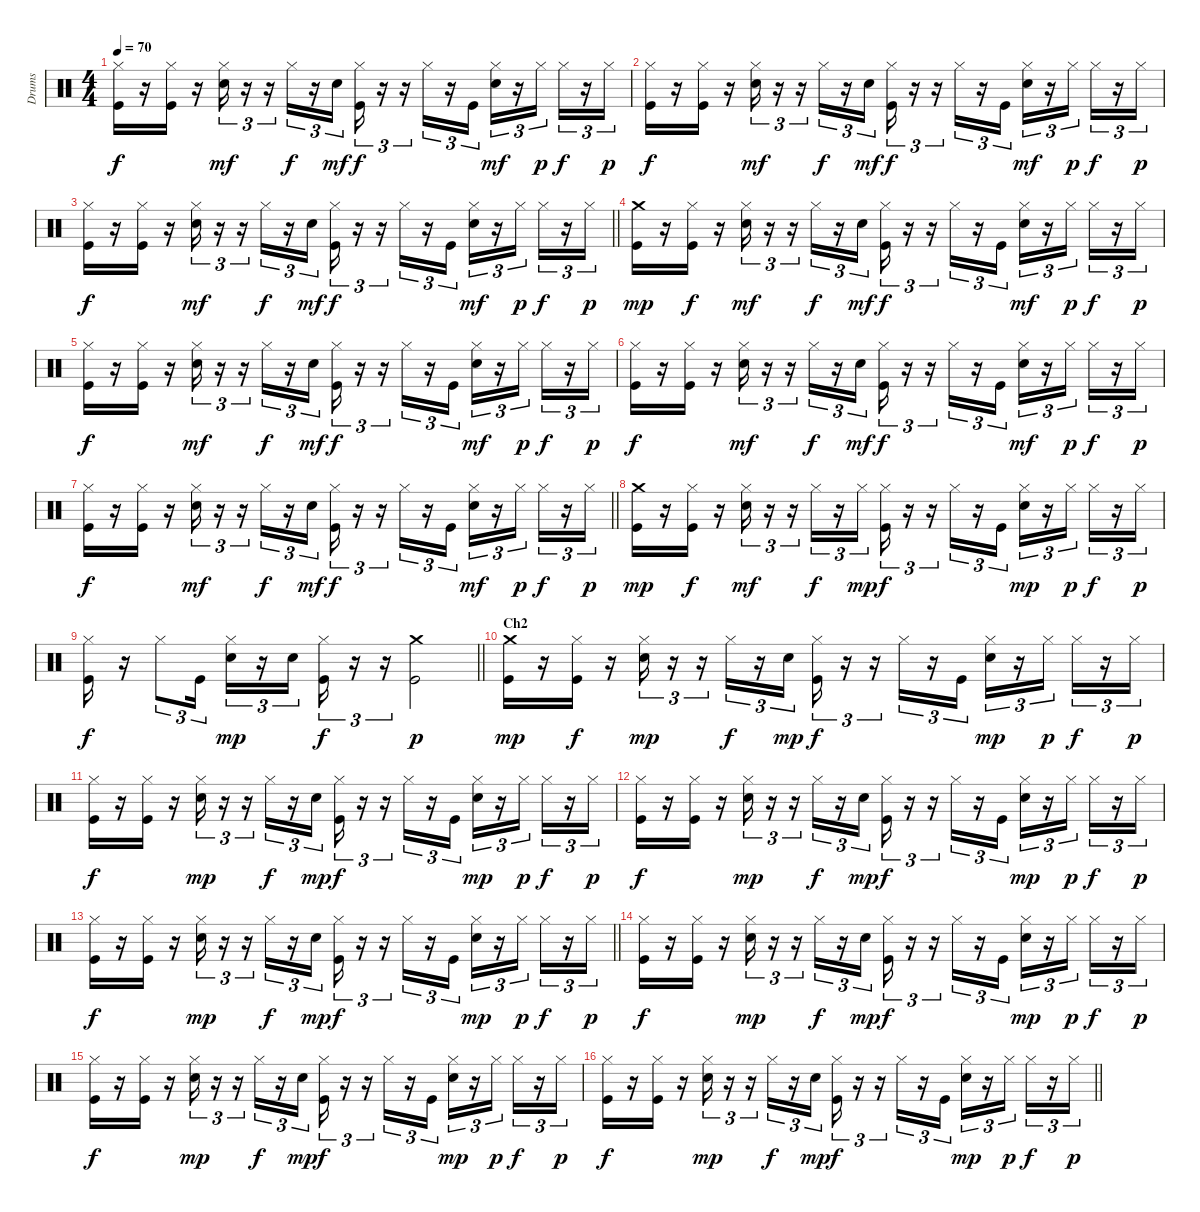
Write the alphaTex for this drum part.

\track ("Drums" "Drums") {instrument percussion}
\staff {score}
\articulation defaults
\ts (4 4)
\tempo 70
\clef neutral
\ks c
("Kick (hit)" "Hi-Hat (closed)").16{dy f} r.16 ("Kick (hit)" "Hi-Hat (closed)").16 r.16 ("Electric Snare (hit)" "Hi-Hat (closed)").16{tu (3 2) dy mf} r.16{tu (3 2)} r.16{tu (3 2)} "Hi-Hat (closed)".16{tu (3 2) dy f} r.16{tu (3 2)} "Electric Snare (hit)".16{tu (3 2) dy mf} ("Kick (hit)" "Hi-Hat (closed)").16{tu (3 2) dy f} r.16{tu (3 2)} r.16{tu (3 2)} "Hi-Hat (closed)".16{tu (3 2)} r.16{tu (3 2)} "Kick (hit)".16{tu (3 2)} ("Electric Snare (hit)" "Hi-Hat (closed)").16{tu (3 2) dy mf} r.16{tu (3 2)} "Hi-Hat (closed)".16{tu (3 2) dy p} "Hi-Hat (closed)".16{tu (3 2) dy f} r.16{tu (3 2)} "Hi-Hat (closed)".16{tu (3 2) dy p} |
("Kick (hit)" "Hi-Hat (closed)").16{dy f} r.16 ("Kick (hit)" "Hi-Hat (closed)").16 r.16 ("Electric Snare (hit)" "Hi-Hat (closed)").16{tu (3 2) dy mf} r.16{tu (3 2)} r.16{tu (3 2)} "Hi-Hat (closed)".16{tu (3 2) dy f} r.16{tu (3 2)} "Electric Snare (hit)".16{tu (3 2) dy mf} ("Kick (hit)" "Hi-Hat (closed)").16{tu (3 2) dy f} r.16{tu (3 2)} r.16{tu (3 2)} "Hi-Hat (closed)".16{tu (3 2)} r.16{tu (3 2)} "Kick (hit)".16{tu (3 2)} ("Electric Snare (hit)" "Hi-Hat (closed)").16{tu (3 2) dy mf} r.16{tu (3 2)} "Hi-Hat (closed)".16{tu (3 2) dy p} "Hi-Hat (closed)".16{tu (3 2) dy f} r.16{tu (3 2)} "Hi-Hat (closed)".16{tu (3 2) dy p} |
\barLineRight lightlight
("Kick (hit)" "Hi-Hat (closed)").16{dy f} r.16 ("Kick (hit)" "Hi-Hat (closed)").16 r.16 ("Electric Snare (hit)" "Hi-Hat (closed)").16{tu (3 2) dy mf} r.16{tu (3 2)} r.16{tu (3 2)} "Hi-Hat (closed)".16{tu (3 2) dy f} r.16{tu (3 2)} "Electric Snare (hit)".16{tu (3 2) dy mf} ("Kick (hit)" "Hi-Hat (closed)").16{tu (3 2) dy f} r.16{tu (3 2)} r.16{tu (3 2)} "Hi-Hat (closed)".16{tu (3 2)} r.16{tu (3 2)} "Kick (hit)".16{tu (3 2)} ("Electric Snare (hit)" "Hi-Hat (closed)").16{tu (3 2) dy mf} r.16{tu (3 2)} "Hi-Hat (closed)".16{tu (3 2) dy p} "Hi-Hat (closed)".16{tu (3 2) dy f} r.16{tu (3 2)} "Hi-Hat (closed)".16{tu (3 2) dy p} |
("Kick (hit)" "Crash medium (hit)").16{dy mp} r.16 ("Kick (hit)" "Hi-Hat (closed)").16{dy f} r.16 ("Electric Snare (hit)" "Hi-Hat (closed)").16{tu (3 2) dy mf} r.16{tu (3 2)} r.16{tu (3 2)} "Hi-Hat (closed)".16{tu (3 2) dy f} r.16{tu (3 2)} "Electric Snare (hit)".16{tu (3 2) dy mf} ("Kick (hit)" "Hi-Hat (closed)").16{tu (3 2) dy f} r.16{tu (3 2)} r.16{tu (3 2)} "Hi-Hat (closed)".16{tu (3 2)} r.16{tu (3 2)} "Kick (hit)".16{tu (3 2)} ("Electric Snare (hit)" "Hi-Hat (closed)").16{tu (3 2) dy mf} r.16{tu (3 2)} "Hi-Hat (closed)".16{tu (3 2) dy p} "Hi-Hat (closed)".16{tu (3 2) dy f} r.16{tu (3 2)} "Hi-Hat (closed)".16{tu (3 2) dy p} |
("Kick (hit)" "Hi-Hat (closed)").16{dy f} r.16 ("Kick (hit)" "Hi-Hat (closed)").16 r.16 ("Electric Snare (hit)" "Hi-Hat (closed)").16{tu (3 2) dy mf} r.16{tu (3 2)} r.16{tu (3 2)} "Hi-Hat (closed)".16{tu (3 2) dy f} r.16{tu (3 2)} "Electric Snare (hit)".16{tu (3 2) dy mf} ("Kick (hit)" "Hi-Hat (closed)").16{tu (3 2) dy f} r.16{tu (3 2)} r.16{tu (3 2)} "Hi-Hat (closed)".16{tu (3 2)} r.16{tu (3 2)} "Kick (hit)".16{tu (3 2)} ("Electric Snare (hit)" "Hi-Hat (closed)").16{tu (3 2) dy mf} r.16{tu (3 2)} "Hi-Hat (closed)".16{tu (3 2) dy p} "Hi-Hat (closed)".16{tu (3 2) dy f} r.16{tu (3 2)} "Hi-Hat (closed)".16{tu (3 2) dy p} |
("Kick (hit)" "Hi-Hat (closed)").16{dy f} r.16 ("Kick (hit)" "Hi-Hat (closed)").16 r.16 ("Electric Snare (hit)" "Hi-Hat (closed)").16{tu (3 2) dy mf} r.16{tu (3 2)} r.16{tu (3 2)} "Hi-Hat (closed)".16{tu (3 2) dy f} r.16{tu (3 2)} "Electric Snare (hit)".16{tu (3 2) dy mf} ("Kick (hit)" "Hi-Hat (closed)").16{tu (3 2) dy f} r.16{tu (3 2)} r.16{tu (3 2)} "Hi-Hat (closed)".16{tu (3 2)} r.16{tu (3 2)} "Kick (hit)".16{tu (3 2)} ("Electric Snare (hit)" "Hi-Hat (closed)").16{tu (3 2) dy mf} r.16{tu (3 2)} "Hi-Hat (closed)".16{tu (3 2) dy p} "Hi-Hat (closed)".16{tu (3 2) dy f} r.16{tu (3 2)} "Hi-Hat (closed)".16{tu (3 2) dy p} |
\barLineRight lightlight
("Kick (hit)" "Hi-Hat (closed)").16{dy f} r.16 ("Kick (hit)" "Hi-Hat (closed)").16 r.16 ("Electric Snare (hit)" "Hi-Hat (closed)").16{tu (3 2) dy mf} r.16{tu (3 2)} r.16{tu (3 2)} "Hi-Hat (closed)".16{tu (3 2) dy f} r.16{tu (3 2)} "Electric Snare (hit)".16{tu (3 2) dy mf} ("Kick (hit)" "Hi-Hat (closed)").16{tu (3 2) dy f} r.16{tu (3 2)} r.16{tu (3 2)} "Hi-Hat (closed)".16{tu (3 2)} r.16{tu (3 2)} "Kick (hit)".16{tu (3 2)} ("Electric Snare (hit)" "Hi-Hat (closed)").16{tu (3 2) dy mf} r.16{tu (3 2)} "Hi-Hat (closed)".16{tu (3 2) dy p} "Hi-Hat (closed)".16{tu (3 2) dy f} r.16{tu (3 2)} "Hi-Hat (closed)".16{tu (3 2) dy p} |
\section ("" "")
("Kick (hit)" "Crash medium (hit)").16{dy mp} r.16 ("Kick (hit)" "Hi-Hat (closed)").16{dy f} r.16 ("Electric Snare (hit)" "Hi-Hat (closed)").16{tu (3 2) dy mf} r.16{tu (3 2)} r.16{tu (3 2)} "Hi-Hat (closed)".16{tu (3 2) dy f} r.16{tu (3 2)} "Hi-Hat (closed)".16{tu (3 2) dy mp} ("Kick (hit)" "Hi-Hat (closed)").16{tu (3 2) dy f} r.16{tu (3 2)} r.16{tu (3 2)} "Hi-Hat (closed)".16{tu (3 2)} r.16{tu (3 2)} "Kick (hit)".16{tu (3 2)} ("Electric Snare (hit)" "Hi-Hat (closed)").16{tu (3 2) dy mp} r.16{tu (3 2)} "Hi-Hat (closed)".16{tu (3 2) dy p} "Hi-Hat (closed)".16{tu (3 2) dy f} r.16{tu (3 2)} "Hi-Hat (closed)".16{tu (3 2) dy p} |
\barLineRight lightlight
("Kick (hit)" "Hi-Hat (closed)").16{dy f} r.16 "Hi-Hat (closed)".8{tu (3 2)} "Kick (hit)".16{tu (3 2)} ("Electric Snare (hit)" "Hi-Hat (closed)").16{tu (3 2) dy mp} r.16{tu (3 2)} "Electric Snare (hit)".16{tu (3 2)} ("Kick (hit)" "Hi-Hat (closed)").16{tu (3 2) dy f} r.16{tu (3 2)} r.16{tu (3 2)} ("Kick (hit)" "Crash medium (hit)").2{dy p} |
\section ("" "Ch2")
("Kick (hit)" "Crash medium (hit)").16{dy mp} r.16 ("Kick (hit)" "Hi-Hat (closed)").16{dy f} r.16 ("Electric Snare (hit)" "Hi-Hat (closed)").16{tu (3 2) dy mp} r.16{tu (3 2)} r.16{tu (3 2)} "Hi-Hat (closed)".16{tu (3 2) dy f} r.16{tu (3 2)} "Electric Snare (hit)".16{tu (3 2) dy mp} ("Kick (hit)" "Hi-Hat (closed)").16{tu (3 2) dy f} r.16{tu (3 2)} r.16{tu (3 2)} "Hi-Hat (closed)".16{tu (3 2)} r.16{tu (3 2)} "Kick (hit)".16{tu (3 2)} ("Electric Snare (hit)" "Hi-Hat (closed)").16{tu (3 2) dy mp} r.16{tu (3 2)} "Hi-Hat (closed)".16{tu (3 2) dy p} "Hi-Hat (closed)".16{tu (3 2) dy f} r.16{tu (3 2)} "Hi-Hat (closed)".16{tu (3 2) dy p} |
("Kick (hit)" "Hi-Hat (closed)").16{dy f} r.16 ("Kick (hit)" "Hi-Hat (closed)").16 r.16 ("Electric Snare (hit)" "Hi-Hat (closed)").16{tu (3 2) dy mp} r.16{tu (3 2)} r.16{tu (3 2)} "Hi-Hat (closed)".16{tu (3 2) dy f} r.16{tu (3 2)} "Electric Snare (hit)".16{tu (3 2) dy mp} ("Kick (hit)" "Hi-Hat (closed)").16{tu (3 2) dy f} r.16{tu (3 2)} r.16{tu (3 2)} "Hi-Hat (closed)".16{tu (3 2)} r.16{tu (3 2)} "Kick (hit)".16{tu (3 2)} ("Electric Snare (hit)" "Hi-Hat (closed)").16{tu (3 2) dy mp} r.16{tu (3 2)} "Hi-Hat (closed)".16{tu (3 2) dy p} "Hi-Hat (closed)".16{tu (3 2) dy f} r.16{tu (3 2)} "Hi-Hat (closed)".16{tu (3 2) dy p} |
("Kick (hit)" "Hi-Hat (closed)").16{dy f} r.16 ("Kick (hit)" "Hi-Hat (closed)").16 r.16 ("Electric Snare (hit)" "Hi-Hat (closed)").16{tu (3 2) dy mp} r.16{tu (3 2)} r.16{tu (3 2)} "Hi-Hat (closed)".16{tu (3 2) dy f} r.16{tu (3 2)} "Electric Snare (hit)".16{tu (3 2) dy mp} ("Kick (hit)" "Hi-Hat (closed)").16{tu (3 2) dy f} r.16{tu (3 2)} r.16{tu (3 2)} "Hi-Hat (closed)".16{tu (3 2)} r.16{tu (3 2)} "Kick (hit)".16{tu (3 2)} ("Electric Snare (hit)" "Hi-Hat (closed)").16{tu (3 2) dy mp} r.16{tu (3 2)} "Hi-Hat (closed)".16{tu (3 2) dy p} "Hi-Hat (closed)".16{tu (3 2) dy f} r.16{tu (3 2)} "Hi-Hat (closed)".16{tu (3 2) dy p} |
\barLineRight lightlight
("Kick (hit)" "Hi-Hat (closed)").16{dy f} r.16 ("Kick (hit)" "Hi-Hat (closed)").16 r.16 ("Electric Snare (hit)" "Hi-Hat (closed)").16{tu (3 2) dy mp} r.16{tu (3 2)} r.16{tu (3 2)} "Hi-Hat (closed)".16{tu (3 2) dy f} r.16{tu (3 2)} "Electric Snare (hit)".16{tu (3 2) dy mp} ("Kick (hit)" "Hi-Hat (closed)").16{tu (3 2) dy f} r.16{tu (3 2)} r.16{tu (3 2)} "Hi-Hat (closed)".16{tu (3 2)} r.16{tu (3 2)} "Kick (hit)".16{tu (3 2)} ("Electric Snare (hit)" "Hi-Hat (closed)").16{tu (3 2) dy mp} r.16{tu (3 2)} "Hi-Hat (closed)".16{tu (3 2) dy p} "Hi-Hat (closed)".16{tu (3 2) dy f} r.16{tu (3 2)} "Hi-Hat (closed)".16{tu (3 2) dy p} |
("Kick (hit)" "Hi-Hat (closed)").16{dy f} r.16 ("Kick (hit)" "Hi-Hat (closed)").16 r.16 ("Electric Snare (hit)" "Hi-Hat (closed)").16{tu (3 2) dy mp} r.16{tu (3 2)} r.16{tu (3 2)} "Hi-Hat (closed)".16{tu (3 2) dy f} r.16{tu (3 2)} "Electric Snare (hit)".16{tu (3 2) dy mp} ("Kick (hit)" "Hi-Hat (closed)").16{tu (3 2) dy f} r.16{tu (3 2)} r.16{tu (3 2)} "Hi-Hat (closed)".16{tu (3 2)} r.16{tu (3 2)} "Kick (hit)".16{tu (3 2)} ("Electric Snare (hit)" "Hi-Hat (closed)").16{tu (3 2) dy mp} r.16{tu (3 2)} "Hi-Hat (closed)".16{tu (3 2) dy p} "Hi-Hat (closed)".16{tu (3 2) dy f} r.16{tu (3 2)} "Hi-Hat (closed)".16{tu (3 2) dy p} |
("Kick (hit)" "Hi-Hat (closed)").16{dy f} r.16 ("Kick (hit)" "Hi-Hat (closed)").16 r.16 ("Electric Snare (hit)" "Hi-Hat (closed)").16{tu (3 2) dy mp} r.16{tu (3 2)} r.16{tu (3 2)} "Hi-Hat (closed)".16{tu (3 2) dy f} r.16{tu (3 2)} "Electric Snare (hit)".16{tu (3 2) dy mp} ("Kick (hit)" "Hi-Hat (closed)").16{tu (3 2) dy f} r.16{tu (3 2)} r.16{tu (3 2)} "Hi-Hat (closed)".16{tu (3 2)} r.16{tu (3 2)} "Kick (hit)".16{tu (3 2)} ("Electric Snare (hit)" "Hi-Hat (closed)").16{tu (3 2) dy mp} r.16{tu (3 2)} "Hi-Hat (closed)".16{tu (3 2) dy p} "Hi-Hat (closed)".16{tu (3 2) dy f} r.16{tu (3 2)} "Hi-Hat (closed)".16{tu (3 2) dy p} |
\barLineRight lightlight
("Kick (hit)" "Hi-Hat (closed)").16{dy f} r.16 ("Kick (hit)" "Hi-Hat (closed)").16 r.16 ("Electric Snare (hit)" "Hi-Hat (closed)").16{tu (3 2) dy mp} r.16{tu (3 2)} r.16{tu (3 2)} "Hi-Hat (closed)".16{tu (3 2) dy f} r.16{tu (3 2)} "Electric Snare (hit)".16{tu (3 2) dy mp} ("Kick (hit)" "Hi-Hat (closed)").16{tu (3 2) dy f} r.16{tu (3 2)} r.16{tu (3 2)} "Hi-Hat (closed)".16{tu (3 2)} r.16{tu (3 2)} "Kick (hit)".16{tu (3 2)} ("Electric Snare (hit)" "Hi-Hat (closed)").16{tu (3 2) dy mp} r.16{tu (3 2)} "Hi-Hat (closed)".16{tu (3 2) dy p} "Hi-Hat (closed)".16{tu (3 2) dy f} r.16{tu (3 2)} "Hi-Hat (closed)".16{tu (3 2) dy p}
